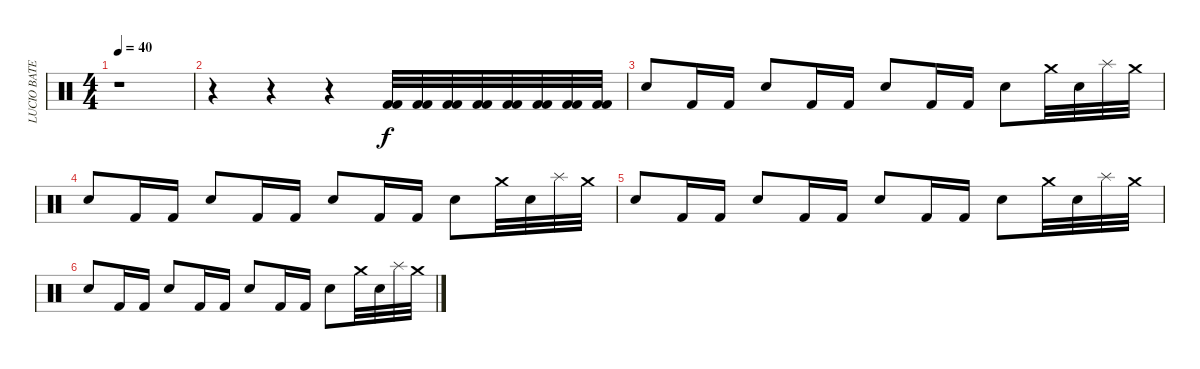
\track ("LUCIO BATERIA" "LUCIO BATE") {instrument percussion}
\staff {score}
\articulation defaults
\ts (4 4)
\tempo 40
\clef neutral
\ks c
r.1{dy f} |
r.4 r.4 r.4 ("Kick (hit) 2" "Kick (hit) 2").32 ("Kick (hit) 2" "Kick (hit) 2").32 ("Kick (hit) 2" "Kick (hit) 2").32 ("Kick (hit) 2" "Kick (hit) 2").32 ("Kick (hit) 2" "Kick (hit) 2").32 ("Kick (hit) 2" "Kick (hit) 2").32 ("Kick (hit) 2" "Kick (hit) 2").32 ("Kick (hit) 2" "Kick (hit) 2").32 |
"Electric Snare (hit)".8 "Kick (hit) 2".16 "Kick (hit) 2".16 "Electric Snare (hit)".8 "Kick (hit) 2".16 "Kick (hit) 2".16 "Electric Snare (hit)".8 "Kick (hit) 2".16 "Kick (hit) 2".16 "Electric Snare (hit)".8 "Crash medium (hit)".32 "Electric Snare (hit)".32 "Splash (hit)".32 "Crash medium (hit)".32 |
"Electric Snare (hit)".8 "Kick (hit) 2".16 "Kick (hit) 2".16 "Electric Snare (hit)".8 "Kick (hit) 2".16 "Kick (hit) 2".16 "Electric Snare (hit)".8 "Kick (hit) 2".16 "Kick (hit) 2".16 "Electric Snare (hit)".8 "Crash medium (hit)".32 "Electric Snare (hit)".32 "Splash (hit)".32 "Crash medium (hit)".32 |
"Electric Snare (hit)".8 "Kick (hit) 2".16 "Kick (hit) 2".16 "Electric Snare (hit)".8 "Kick (hit) 2".16 "Kick (hit) 2".16 "Electric Snare (hit)".8 "Kick (hit) 2".16 "Kick (hit) 2".16 "Electric Snare (hit)".8 "Crash medium (hit)".32 "Electric Snare (hit)".32 "Splash (hit)".32 "Crash medium (hit)".32 |
"Electric Snare (hit)".8 "Kick (hit) 2".16 "Kick (hit) 2".16 "Electric Snare (hit)".8 "Kick (hit) 2".16 "Kick (hit) 2".16 "Electric Snare (hit)".8 "Kick (hit) 2".16 "Kick (hit) 2".16 "Electric Snare (hit)".8 "Crash medium (hit)".32 "Electric Snare (hit)".32 "Splash (hit)".32 "Crash medium (hit)".32
